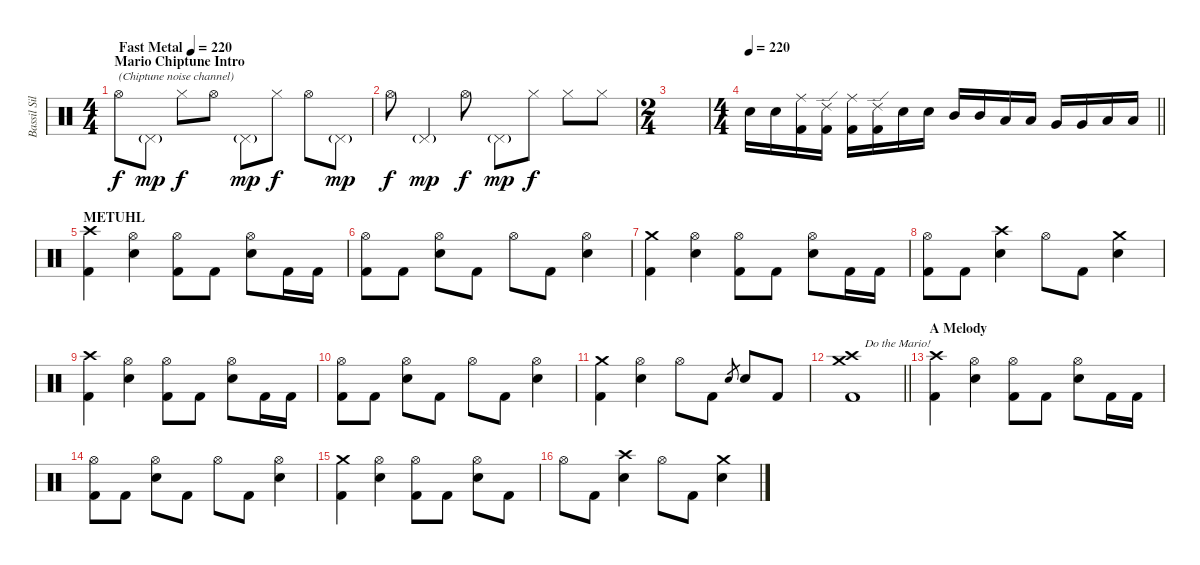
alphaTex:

\track ("Bassil Silver-Hajo" "Bassil Sil") {instrument percussion}
\staff {score}
\articulation defaults
\ts (4 4)
\section ("" "Mario Chiptune Intro")
\tempo (220 "Fast Metal")
\tempo 132
\tempo (220 "Fast Metal")
\clef neutral
\ks c "Hi-Hat (open)".8{txt "(Chiptune noise channel)" dy f} "Pedal Hi-Hat (hit)"{g}.8{dy mp} "Hi-Hat (closed)".8{dy f} "Hi-Hat (open)".8 "Pedal Hi-Hat (hit)"{g}.8{dy mp} "Hi-Hat (closed)".8{dy f} "Hi-Hat (open)".8 "Pedal Hi-Hat (hit)"{g}.8{dy mp}
|
"Hi-Hat (open)".8{dy f} "Pedal Hi-Hat (hit)"{g}.4{dy mp} "Hi-Hat (open)".8{dy f} "Pedal Hi-Hat (hit)"{g}.8{dy mp} "Hi-Hat (closed)".8{dy f} "Hi-Hat (closed)".8 "Hi-Hat (closed)".8 |
\ts (2 4)
|
\ts (4 4)
\tempo 220
\barLineRight lightlight "Snare (hit) 2".16 "Snare (hit) 2".16
("Ride (middle)" "Kick (hit) 2").16 ("Ride (edge) 2" "Kick (hit) 2").16 ("Ride (middle)" "Kick (hit) 2").16 ("Ride (edge) 2" "Kick (hit) 2").16 "Snare (hit) 2".16 "Snare (hit) 2".16 "Mid Tom (hit)".16 "Mid Tom (hit)".16 "Low Tom (hit)".16 "Low Tom (hit)".16 "Very Low Tom (hit)".16 "Very Low Tom (hit)".16 "Low Floor Tom (hit)".16 "Low Floor Tom (hit)".16 |
\section ("" "METUHL")
("Crash high (hit)" "Kick (hit) 2").4 ("Hi-Hat (open)" "Snare (hit) 2").4 ("Hi-Hat (open)" "Kick (hit) 2").8 "Kick (hit) 2".8 ("Hi-Hat (open)" "Snare (hit) 2").8 "Kick (hit) 2".16 "Kick (hit) 2".16 |
("Hi-Hat (open)" "Kick (hit) 2").8 "Kick (hit) 2".8 ("Hi-Hat (open)" "Snare (hit) 2").8 "Kick (hit) 2".8 "Hi-Hat (open)".8 "Kick (hit) 2".8 ("Hi-Hat (open)" "Snare (hit) 2").4 |
("Crash medium (hit)" "Kick (hit) 2").4 ("Hi-Hat (open)" "Snare (hit) 2").4 ("Hi-Hat (open)" "Kick (hit) 2").8 "Kick (hit) 2".8 ("Hi-Hat (open)" "Snare (hit) 2").8 "Kick (hit) 2".16 "Kick (hit) 2".16 |
("Hi-Hat (open)" "Kick (hit) 2").8 "Kick (hit) 2".8 ("Crash high (hit)" "Snare (hit) 2").4 "Hi-Hat (open)".8 "Kick (hit) 2".8 ("Crash medium (hit)" "Snare (hit) 2").4 |
("Crash high (hit)" "Kick (hit) 2").4 ("Hi-Hat (open)" "Snare (hit) 2").4 ("Hi-Hat (open)" "Kick (hit) 2").8 "Kick (hit) 2".8 ("Hi-Hat (open)" "Snare (hit) 2").8 "Kick (hit) 2".16 "Kick (hit) 2".16 |
("Hi-Hat (open)" "Kick (hit) 2").8 "Kick (hit) 2".8 ("Hi-Hat (open)" "Snare (hit) 2").8 "Kick (hit) 2".8 "Hi-Hat (open)".8 "Kick (hit) 2".8 ("Hi-Hat (open)" "Snare (hit) 2").4 |
("Crash medium (hit)" "Kick (hit) 2").4 ("Hi-Hat (open)" "Snare (hit) 2").4 "Hi-Hat (open)".8 "Kick (hit) 2".8 "Snare (hit) 2".8{gr} "Snare (hit) 2".8 "Kick (hit) 2".8 |
\barLineRight lightlight
("Crash medium (hit)" "Crash high (hit)" "Kick (hit) 2").1{txt "    Do the Mario!"} |
\section ("" "A Melody")
("Crash high (hit)" "Kick (hit) 2").4 ("Hi-Hat (open)" "Snare (hit) 2").4 ("Hi-Hat (open)" "Kick (hit) 2").8 "Kick (hit) 2".8 ("Hi-Hat (open)" "Snare (hit) 2").8 "Kick (hit) 2".16 "Kick (hit) 2".16 |
("Hi-Hat (open)" "Kick (hit) 2").8 "Kick (hit) 2".8 ("Hi-Hat (open)" "Snare (hit) 2").8 "Kick (hit) 2".8 "Hi-Hat (open)".8 "Kick (hit) 2".8 ("Hi-Hat (open)" "Snare (hit) 2").4 |
("Crash medium (hit)" "Kick (hit) 2").4 ("Hi-Hat (open)" "Snare (hit) 2").4 ("Hi-Hat (open)" "Kick (hit) 2").8 "Kick (hit) 2".8 ("Hi-Hat (open)" "Snare (hit) 2").8 "Kick (hit) 2".8 |
"Hi-Hat (open)".8 "Kick (hit) 2".8 ("Crash high (hit)" "Snare (hit) 2").4 "Hi-Hat (open)".8 "Kick (hit) 2".8 ("Crash medium (hit)" "Snare (hit) 2").4
